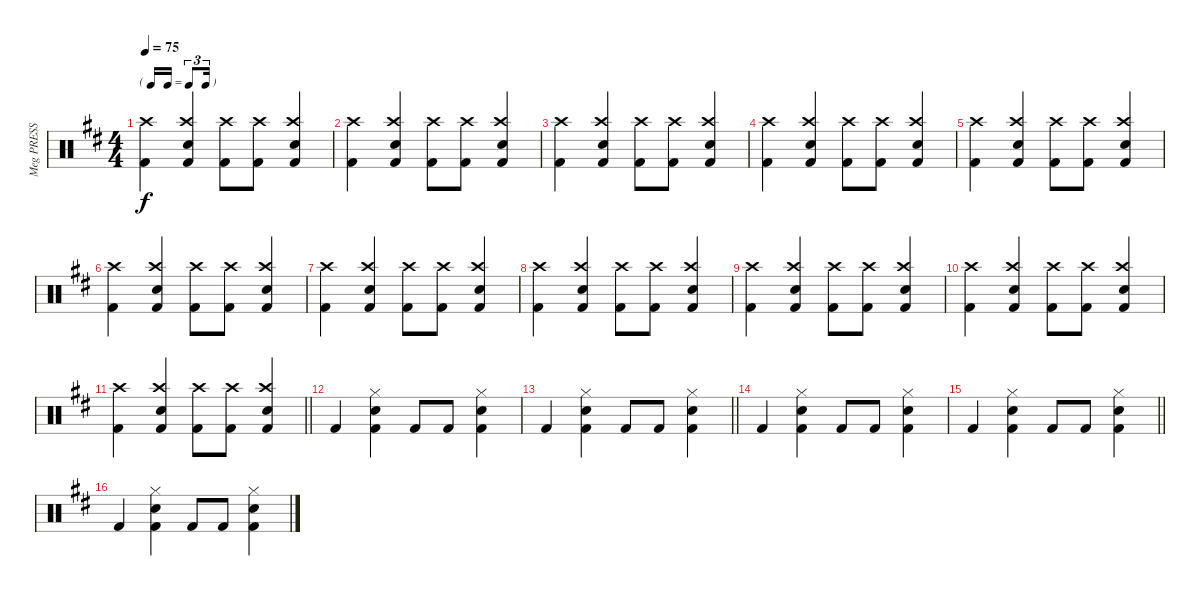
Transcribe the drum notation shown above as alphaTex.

\track ("Meg PRESS F5!!" "Meg PRESS ") {instrument percussion}
\staff {score}
\articulation defaults
\ts (4 4)
\tf triplet16th
\tempo 75
\clef neutral
\ks d
("Kick (hit) 2" "Crash high (hit)").4{dy f} ("Kick (hit) 2" "Crash high (hit)" "Snare (hit) 2").4 ("Kick (hit) 2" "Crash high (hit)").8 ("Kick (hit) 2" "Crash high (hit)").8 ("Kick (hit) 2" "Crash high (hit)" "Snare (hit) 2").4 |
("Kick (hit) 2" "Crash high (hit)").4 ("Kick (hit) 2" "Crash high (hit)" "Snare (hit) 2").4 ("Kick (hit) 2" "Crash high (hit)").8 ("Kick (hit) 2" "Crash high (hit)").8 ("Kick (hit) 2" "Crash high (hit)" "Snare (hit) 2").4 |
("Kick (hit) 2" "Crash high (hit)").4 ("Kick (hit) 2" "Crash high (hit)" "Snare (hit) 2").4 ("Kick (hit) 2" "Crash high (hit)").8 ("Kick (hit) 2" "Crash high (hit)").8 ("Kick (hit) 2" "Crash high (hit)" "Snare (hit) 2").4 |
("Kick (hit) 2" "Crash high (hit)").4 ("Kick (hit) 2" "Crash high (hit)" "Snare (hit) 2").4 ("Kick (hit) 2" "Crash high (hit)").8 ("Kick (hit) 2" "Crash high (hit)").8 ("Kick (hit) 2" "Crash high (hit)" "Snare (hit) 2").4 |
("Kick (hit) 2" "Crash high (hit)").4 ("Kick (hit) 2" "Crash high (hit)" "Snare (hit) 2").4 ("Kick (hit) 2" "Crash high (hit)").8 ("Kick (hit) 2" "Crash high (hit)").8 ("Kick (hit) 2" "Crash high (hit)" "Snare (hit) 2").4 |
("Kick (hit) 2" "Crash high (hit)").4 ("Kick (hit) 2" "Crash high (hit)" "Snare (hit) 2").4 ("Kick (hit) 2" "Crash high (hit)").8 ("Kick (hit) 2" "Crash high (hit)").8 ("Kick (hit) 2" "Crash high (hit)" "Snare (hit) 2").4 |
("Kick (hit) 2" "Crash high (hit)").4 ("Kick (hit) 2" "Crash high (hit)" "Snare (hit) 2").4 ("Kick (hit) 2" "Crash high (hit)").8 ("Kick (hit) 2" "Crash high (hit)").8 ("Kick (hit) 2" "Crash high (hit)" "Snare (hit) 2").4 |
("Kick (hit) 2" "Crash high (hit)").4 ("Kick (hit) 2" "Crash high (hit)" "Snare (hit) 2").4 ("Kick (hit) 2" "Crash high (hit)").8 ("Kick (hit) 2" "Crash high (hit)").8 ("Kick (hit) 2" "Crash high (hit)" "Snare (hit) 2").4 |
("Kick (hit) 2" "Crash high (hit)").4 ("Kick (hit) 2" "Crash high (hit)" "Snare (hit) 2").4 ("Kick (hit) 2" "Crash high (hit)").8 ("Kick (hit) 2" "Crash high (hit)").8 ("Kick (hit) 2" "Crash high (hit)" "Snare (hit) 2").4 |
("Kick (hit) 2" "Crash high (hit)").4 ("Kick (hit) 2" "Crash high (hit)" "Snare (hit) 2").4 ("Kick (hit) 2" "Crash high (hit)").8 ("Kick (hit) 2" "Crash high (hit)").8 ("Kick (hit) 2" "Crash high (hit)" "Snare (hit) 2").4 |
\barLineRight lightlight
("Kick (hit) 2" "Crash high (hit)").4 ("Kick (hit) 2" "Crash high (hit)" "Snare (hit) 2").4 ("Kick (hit) 2" "Crash high (hit)").8 ("Kick (hit) 2" "Crash high (hit)").8 ("Kick (hit) 2" "Crash high (hit)" "Snare (hit) 2").4 |
"Kick (hit) 2".4 ("Kick (hit) 2" "Hi-Hat (closed)" "Snare (hit) 2").4 "Kick (hit) 2".8 "Kick (hit) 2".8 ("Kick (hit) 2" "Hi-Hat (closed)" "Snare (hit) 2").4 |
\barLineRight lightlight "Kick (hit) 2".4
("Kick (hit) 2" "Hi-Hat (closed)" "Snare (hit) 2").4 "Kick (hit) 2".8 "Kick (hit) 2".8 ("Kick (hit) 2" "Hi-Hat (closed)" "Snare (hit) 2").4 |
"Kick (hit) 2".4 ("Kick (hit) 2" "Hi-Hat (closed)" "Snare (hit) 2").4 "Kick (hit) 2".8 "Kick (hit) 2".8 ("Kick (hit) 2" "Hi-Hat (closed)" "Snare (hit) 2").4 |
\barLineRight lightlight "Kick (hit) 2".4
("Kick (hit) 2" "Hi-Hat (closed)" "Snare (hit) 2").4 "Kick (hit) 2".8 "Kick (hit) 2".8 ("Kick (hit) 2" "Hi-Hat (closed)" "Snare (hit) 2").4 |
"Kick (hit) 2".4 ("Kick (hit) 2" "Hi-Hat (closed)" "Snare (hit) 2").4 "Kick (hit) 2".8 "Kick (hit) 2".8 ("Kick (hit) 2" "Hi-Hat (closed)" "Snare (hit) 2").4
